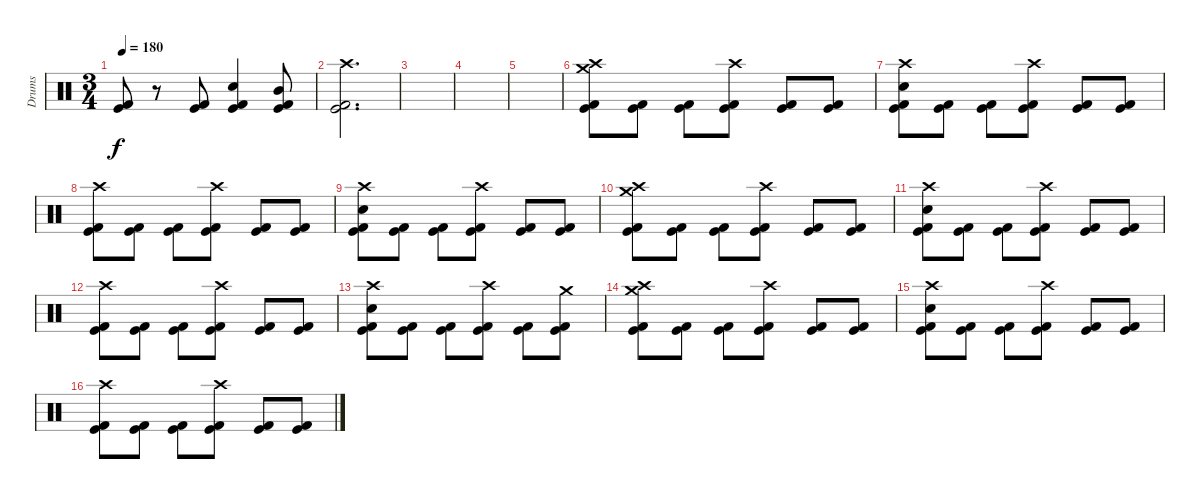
\track ("Drums" "Drums") {instrument percussion}
\staff {score}
\articulation defaults
\ts (3 4)
\tempo 180
\clef neutral
\ks c
("Kick (hit)" "Kick (hit) 2").8{dy f} r.8 ("Kick (hit)" "Kick (hit) 2").8 ("Snare (hit) 2" "Kick (hit)" "Kick (hit) 2").4 ("Mid Tom (hit)" "Kick (hit)" "Kick (hit) 2").8 |
("Crash high (hit)" "Kick (hit)" "Kick (hit) 2").2{d} |
|
|
|
("Crash medium (hit)" "Crash high (hit)" "Kick (hit)" "Kick (hit) 2").8 ("Kick (hit)" "Kick (hit) 2").8 ("Kick (hit)" "Kick (hit) 2").8 ("Crash high (hit)" "Kick (hit)" "Kick (hit) 2").8 ("Kick (hit)" "Kick (hit) 2").8 ("Kick (hit)" "Kick (hit) 2").8 |
("Crash high (hit)" "Snare (hit) 2" "Kick (hit)" "Kick (hit) 2").8 ("Kick (hit)" "Kick (hit) 2").8 ("Kick (hit)" "Kick (hit) 2").8 ("Crash high (hit)" "Kick (hit)" "Kick (hit) 2").8 ("Kick (hit)" "Kick (hit) 2").8 ("Kick (hit)" "Kick (hit) 2").8 |
("Crash high (hit)" "Kick (hit)" "Kick (hit) 2").8 ("Kick (hit)" "Kick (hit) 2").8 ("Kick (hit)" "Kick (hit) 2").8 ("Crash high (hit)" "Kick (hit)" "Kick (hit) 2").8 ("Kick (hit)" "Kick (hit) 2").8 ("Kick (hit)" "Kick (hit) 2").8 |
("Crash high (hit)" "Snare (hit) 2" "Kick (hit)" "Kick (hit) 2").8 ("Kick (hit)" "Kick (hit) 2").8 ("Kick (hit)" "Kick (hit) 2").8 ("Crash high (hit)" "Kick (hit)" "Kick (hit) 2").8 ("Kick (hit)" "Kick (hit) 2").8 ("Kick (hit)" "Kick (hit) 2").8 |
("Crash medium (hit)" "Crash high (hit)" "Kick (hit)" "Kick (hit) 2").8 ("Kick (hit)" "Kick (hit) 2").8 ("Kick (hit)" "Kick (hit) 2").8 ("Crash high (hit)" "Kick (hit)" "Kick (hit) 2").8 ("Kick (hit)" "Kick (hit) 2").8 ("Kick (hit)" "Kick (hit) 2").8 |
("Crash high (hit)" "Snare (hit) 2" "Kick (hit)" "Kick (hit) 2").8 ("Kick (hit)" "Kick (hit) 2").8 ("Kick (hit)" "Kick (hit) 2").8 ("Crash high (hit)" "Kick (hit)" "Kick (hit) 2").8 ("Kick (hit)" "Kick (hit) 2").8 ("Kick (hit)" "Kick (hit) 2").8 |
("Crash high (hit)" "Kick (hit)" "Kick (hit) 2").8 ("Kick (hit)" "Kick (hit) 2").8 ("Kick (hit)" "Kick (hit) 2").8 ("Crash high (hit)" "Kick (hit)" "Kick (hit) 2").8 ("Kick (hit)" "Kick (hit) 2").8 ("Kick (hit)" "Kick (hit) 2").8 |
("Crash high (hit)" "Snare (hit) 2" "Kick (hit)" "Kick (hit) 2").8 ("Kick (hit)" "Kick (hit) 2").8 ("Kick (hit)" "Kick (hit) 2").8 ("Crash high (hit)" "Kick (hit)" "Kick (hit) 2").8 ("Kick (hit)" "Kick (hit) 2").8 ("Crash medium (hit)" "Kick (hit)" "Kick (hit) 2").8 |
("Crash medium (hit)" "Crash high (hit)" "Kick (hit)" "Kick (hit) 2").8 ("Kick (hit)" "Kick (hit) 2").8 ("Kick (hit)" "Kick (hit) 2").8 ("Crash high (hit)" "Kick (hit)" "Kick (hit) 2").8 ("Kick (hit)" "Kick (hit) 2").8 ("Kick (hit)" "Kick (hit) 2").8 |
("Crash high (hit)" "Snare (hit) 2" "Kick (hit)" "Kick (hit) 2").8 ("Kick (hit)" "Kick (hit) 2").8 ("Kick (hit)" "Kick (hit) 2").8 ("Crash high (hit)" "Kick (hit)" "Kick (hit) 2").8 ("Kick (hit)" "Kick (hit) 2").8 ("Kick (hit)" "Kick (hit) 2").8 |
("Crash high (hit)" "Kick (hit)" "Kick (hit) 2").8 ("Kick (hit)" "Kick (hit) 2").8 ("Kick (hit)" "Kick (hit) 2").8 ("Crash high (hit)" "Kick (hit)" "Kick (hit) 2").8 ("Kick (hit)" "Kick (hit) 2").8 ("Kick (hit)" "Kick (hit) 2").8
